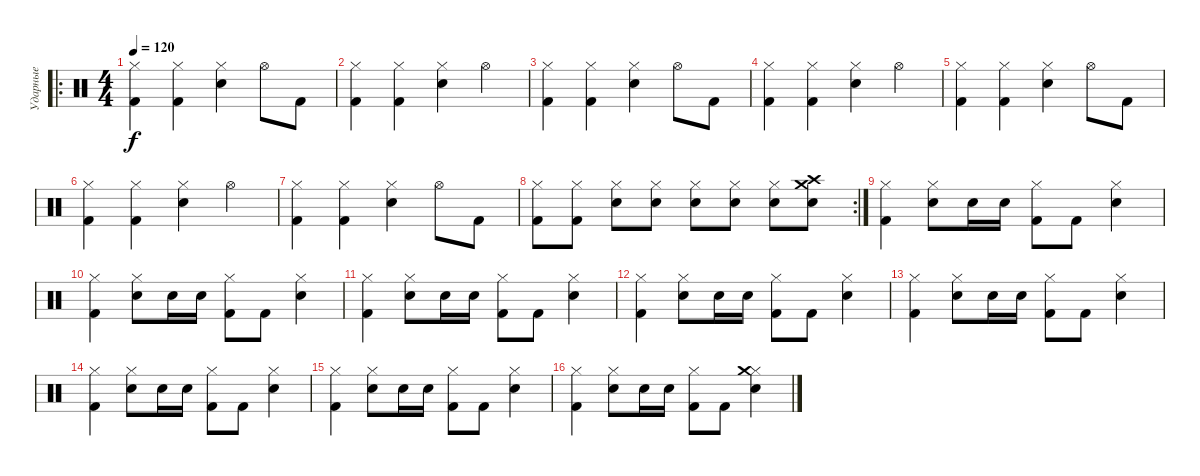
\track ("Ударные" "Ударные") {instrument percussion}
\staff {score}
\articulation defaults
\ro
\ts (4 4)
\tempo 120
\clef neutral
\ks c
("Kick (hit) 2" "Hi-Hat (closed)").4{dy f} ("Kick (hit) 2" "Hi-Hat (closed)").4 ("Snare (hit) 2" "Hi-Hat (closed)").4 "Hi-Hat (open)".8 "Kick (hit) 2".8 |
("Kick (hit) 2" "Hi-Hat (closed)").4 ("Kick (hit) 2" "Hi-Hat (closed)").4 ("Snare (hit) 2" "Hi-Hat (closed)").4 "Hi-Hat (open)".4 |
("Kick (hit) 2" "Hi-Hat (closed)").4 ("Kick (hit) 2" "Hi-Hat (closed)").4 ("Snare (hit) 2" "Hi-Hat (closed)").4 "Hi-Hat (open)".8 "Kick (hit) 2".8 |
("Kick (hit) 2" "Hi-Hat (closed)").4 ("Kick (hit) 2" "Hi-Hat (closed)").4 ("Snare (hit) 2" "Hi-Hat (closed)").4 "Hi-Hat (open)".4 |
("Kick (hit) 2" "Hi-Hat (closed)").4 ("Kick (hit) 2" "Hi-Hat (closed)").4 ("Snare (hit) 2" "Hi-Hat (closed)").4 "Hi-Hat (open)".8 "Kick (hit) 2".8 |
("Kick (hit) 2" "Hi-Hat (closed)").4 ("Kick (hit) 2" "Hi-Hat (closed)").4 ("Snare (hit) 2" "Hi-Hat (closed)").4 "Hi-Hat (open)".4 |
("Kick (hit) 2" "Hi-Hat (closed)").4 ("Kick (hit) 2" "Hi-Hat (closed)").4 ("Snare (hit) 2" "Hi-Hat (closed)").4 "Hi-Hat (open)".8 "Kick (hit) 2".8 |
\rc 2
("Kick (hit) 2" "Hi-Hat (closed)").8 ("Kick (hit) 2" "Hi-Hat (closed)").8 ("Snare (hit) 2" "Hi-Hat (closed)").8 ("Snare (hit) 2" "Hi-Hat (closed)").8 ("Snare (hit) 2" "Hi-Hat (closed)").8 ("Snare (hit) 2" "Hi-Hat (closed)").8 ("Snare (hit) 2" "Hi-Hat (closed)").8 ("Snare (hit) 2" "Crash high (hit)" "Crash medium (hit)").8 |
("Kick (hit) 2" "Hi-Hat (closed)").4 ("Snare (hit) 2" "Hi-Hat (closed)").8 "Snare (hit) 2".16 "Snare (hit) 2".16 ("Kick (hit) 2" "Hi-Hat (closed)").8 "Kick (hit) 2".8 ("Snare (hit) 2" "Hi-Hat (closed)").4 |
("Kick (hit) 2" "Hi-Hat (closed)").4 ("Snare (hit) 2" "Hi-Hat (closed)").8 "Snare (hit) 2".16 "Snare (hit) 2".16 ("Kick (hit) 2" "Hi-Hat (closed)").8 "Kick (hit) 2".8 ("Snare (hit) 2" "Hi-Hat (closed)").4 |
("Kick (hit) 2" "Hi-Hat (closed)").4 ("Snare (hit) 2" "Hi-Hat (closed)").8 "Snare (hit) 2".16 "Snare (hit) 2".16 ("Kick (hit) 2" "Hi-Hat (closed)").8 "Kick (hit) 2".8 ("Snare (hit) 2" "Hi-Hat (closed)").4 |
("Kick (hit) 2" "Hi-Hat (closed)").4 ("Snare (hit) 2" "Hi-Hat (closed)").8 "Snare (hit) 2".16 "Snare (hit) 2".16 ("Kick (hit) 2" "Hi-Hat (closed)").8 "Kick (hit) 2".8 ("Snare (hit) 2" "Hi-Hat (closed)").4 |
("Kick (hit) 2" "Hi-Hat (closed)").4 ("Snare (hit) 2" "Hi-Hat (closed)").8 "Snare (hit) 2".16 "Snare (hit) 2".16 ("Kick (hit) 2" "Hi-Hat (closed)").8 "Kick (hit) 2".8 ("Snare (hit) 2" "Hi-Hat (closed)").4 |
("Kick (hit) 2" "Hi-Hat (closed)").4 ("Snare (hit) 2" "Hi-Hat (closed)").8 "Snare (hit) 2".16 "Snare (hit) 2".16 ("Kick (hit) 2" "Hi-Hat (closed)").8 "Kick (hit) 2".8 ("Snare (hit) 2" "Hi-Hat (closed)").4 |
("Kick (hit) 2" "Hi-Hat (closed)").4 ("Snare (hit) 2" "Hi-Hat (closed)").8 "Snare (hit) 2".16 "Snare (hit) 2".16 ("Kick (hit) 2" "Hi-Hat (closed)").8 "Kick (hit) 2".8 ("Snare (hit) 2" "Hi-Hat (closed)").4 |
("Kick (hit) 2" "Hi-Hat (closed)").4 ("Snare (hit) 2" "Hi-Hat (closed)").8 "Snare (hit) 2".16 "Snare (hit) 2".16 ("Kick (hit) 2" "Hi-Hat (closed)").8 "Kick (hit) 2".8 ("Snare (hit) 2" "Hi-Hat (closed)" "Crash medium (hit)").4
